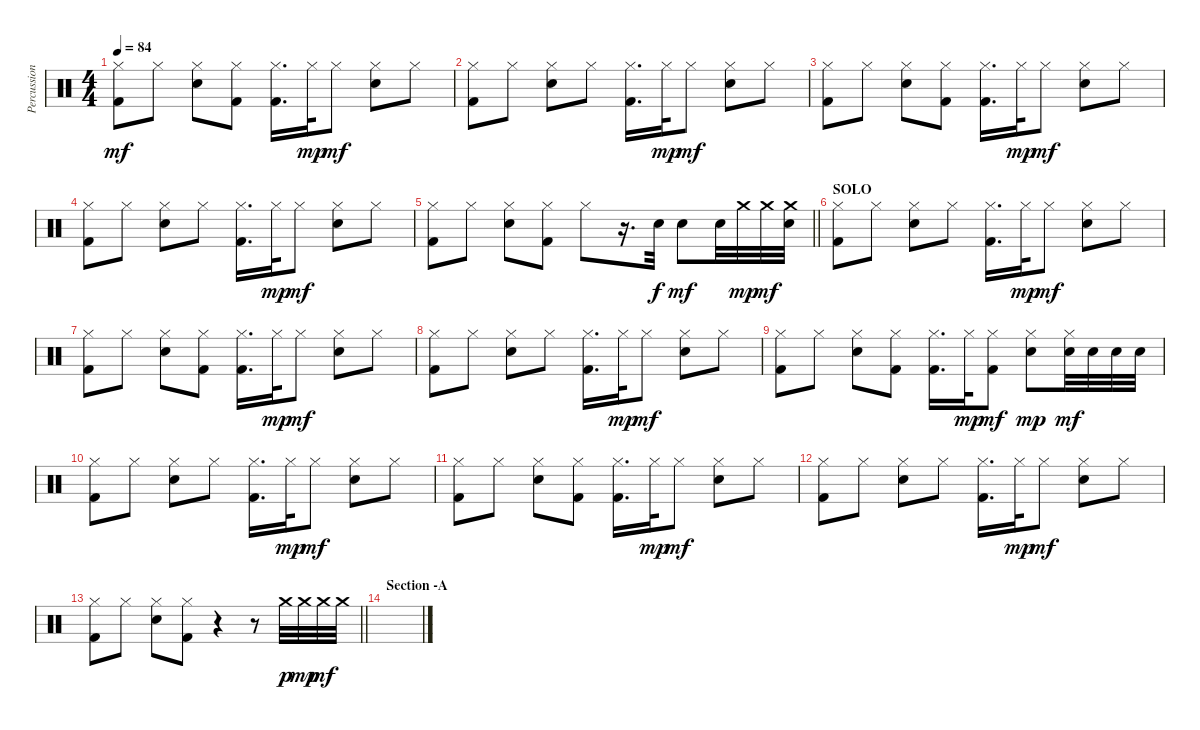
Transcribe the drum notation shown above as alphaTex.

\track ("Percussion" "Percussion") {instrument percussion}
\staff {score}
\articulation defaults
\ts (4 4)
\tempo 84
\clef neutral
\ks c
("Hi-Hat (closed)" "Kick (hit) 2").8{dy mf} "Hi-Hat (closed)".8 ("Hi-Hat (closed)" "Electric Snare (hit)").8 ("Hi-Hat (closed)" "Kick (hit) 2").8 ("Hi-Hat (closed)" "Kick (hit) 2").16{d} "Hi-Hat (closed)".32{dy mp} "Hi-Hat (closed)".8{dy mf} ("Hi-Hat (closed)" "Electric Snare (hit)").8 "Hi-Hat (closed)".8 |
("Hi-Hat (closed)" "Kick (hit) 2").8 "Hi-Hat (closed)".8 ("Hi-Hat (closed)" "Electric Snare (hit)").8 "Hi-Hat (closed)".8 ("Hi-Hat (closed)" "Kick (hit) 2").16{d} "Hi-Hat (closed)".32{dy mp} "Hi-Hat (closed)".8{dy mf} ("Hi-Hat (closed)" "Electric Snare (hit)").8 "Hi-Hat (closed)".8 |
("Hi-Hat (closed)" "Kick (hit) 2").8 "Hi-Hat (closed)".8 ("Hi-Hat (closed)" "Electric Snare (hit)").8 ("Hi-Hat (closed)" "Kick (hit) 2").8 ("Hi-Hat (closed)" "Kick (hit) 2").16{d} "Hi-Hat (closed)".32{dy mp} "Hi-Hat (closed)".8{dy mf} ("Hi-Hat (closed)" "Electric Snare (hit)").8 "Hi-Hat (closed)".8 |
("Hi-Hat (closed)" "Kick (hit) 2").8 "Hi-Hat (closed)".8 ("Hi-Hat (closed)" "Electric Snare (hit)").8 "Hi-Hat (closed)".8 ("Hi-Hat (closed)" "Kick (hit) 2").16{d} "Hi-Hat (closed)".32{dy mp} "Hi-Hat (closed)".8{dy mf} ("Hi-Hat (closed)" "Electric Snare (hit)").8 "Hi-Hat (closed)".8 |
\barLineRight lightlight
("Hi-Hat (closed)" "Kick (hit) 2").8 "Hi-Hat (closed)".8 ("Hi-Hat (closed)" "Electric Snare (hit)").8 ("Hi-Hat (closed)" "Kick (hit) 2").8 "Hi-Hat (closed)".8 r.16{d} "Electric Snare (hit)".32{dy f} "Electric Snare (hit)".8{dy mf} "Electric Snare (hit)".32 "Crash medium (hit)".32{dy mp} "Crash medium (hit)".32{dy mf} ("Crash medium (hit)" "Electric Snare (hit)").32 |
\section ("" "SOLO")
("Hi-Hat (closed)" "Kick (hit) 2").8 "Hi-Hat (closed)".8 ("Hi-Hat (closed)" "Electric Snare (hit)").8 "Hi-Hat (closed)".8 ("Hi-Hat (closed)" "Kick (hit) 2").16{d} "Hi-Hat (closed)".32{dy mp} "Hi-Hat (closed)".8{dy mf} ("Hi-Hat (closed)" "Electric Snare (hit)").8 "Hi-Hat (closed)".8 |
("Hi-Hat (closed)" "Kick (hit) 2").8 "Hi-Hat (closed)".8 ("Hi-Hat (closed)" "Electric Snare (hit)").8 ("Hi-Hat (closed)" "Kick (hit) 2").8 ("Hi-Hat (closed)" "Kick (hit) 2").16{d} "Hi-Hat (closed)".32{dy mp} "Hi-Hat (closed)".8{dy mf} ("Hi-Hat (closed)" "Electric Snare (hit)").8 "Hi-Hat (closed)".8 |
("Hi-Hat (closed)" "Kick (hit) 2").8 "Hi-Hat (closed)".8 ("Hi-Hat (closed)" "Electric Snare (hit)").8 "Hi-Hat (closed)".8 ("Hi-Hat (closed)" "Kick (hit) 2").16{d} "Hi-Hat (closed)".32{dy mp} "Hi-Hat (closed)".8{dy mf} ("Hi-Hat (closed)" "Electric Snare (hit)").8 "Hi-Hat (closed)".8 |
("Hi-Hat (closed)" "Kick (hit) 2").8 "Hi-Hat (closed)".8 ("Hi-Hat (closed)" "Electric Snare (hit)").8 ("Hi-Hat (closed)" "Kick (hit) 2").8 ("Hi-Hat (closed)" "Kick (hit) 2").16{d} "Hi-Hat (closed)".32{dy mp} ("Hi-Hat (closed)" "Kick (hit) 2").8{dy mf} ("Hi-Hat (closed)" "Electric Snare (hit)").8{dy mp} ("Hi-Hat (closed)" "Electric Snare (hit)").32{dy mf} "Electric Snare (hit)".32 "Electric Snare (hit)".32 "Electric Snare (hit)".32 |
("Hi-Hat (closed)" "Kick (hit) 2").8 "Hi-Hat (closed)".8 ("Hi-Hat (closed)" "Electric Snare (hit)").8 "Hi-Hat (closed)".8 ("Hi-Hat (closed)" "Kick (hit) 2").16{d} "Hi-Hat (closed)".32{dy mp} "Hi-Hat (closed)".8{dy mf} ("Hi-Hat (closed)" "Electric Snare (hit)").8 "Hi-Hat (closed)".8 |
("Hi-Hat (closed)" "Kick (hit) 2").8 "Hi-Hat (closed)".8 ("Hi-Hat (closed)" "Electric Snare (hit)").8 ("Hi-Hat (closed)" "Kick (hit) 2").8 ("Hi-Hat (closed)" "Kick (hit) 2").16{d} "Hi-Hat (closed)".32{dy mp} "Hi-Hat (closed)".8{dy mf} ("Hi-Hat (closed)" "Electric Snare (hit)").8 "Hi-Hat (closed)".8 |
("Hi-Hat (closed)" "Kick (hit) 2").8 "Hi-Hat (closed)".8 ("Hi-Hat (closed)" "Electric Snare (hit)").8 "Hi-Hat (closed)".8 ("Hi-Hat (closed)" "Kick (hit) 2").16{d} "Hi-Hat (closed)".32{dy mp} "Hi-Hat (closed)".8{dy mf} ("Hi-Hat (closed)" "Electric Snare (hit)").8 "Hi-Hat (closed)".8 |
\barLineRight lightlight
("Hi-Hat (closed)" "Kick (hit) 2").8 "Hi-Hat (closed)".8 ("Hi-Hat (closed)" "Electric Snare (hit)").8 ("Hi-Hat (closed)" "Kick (hit) 2").8 r.4 r.8 "Crash medium (hit)".32{dy p} "Crash medium (hit)".32{dy mp} "Crash medium (hit)".32{dy mf} "Crash medium (hit)".32 |
\section ("" "Section -A")
